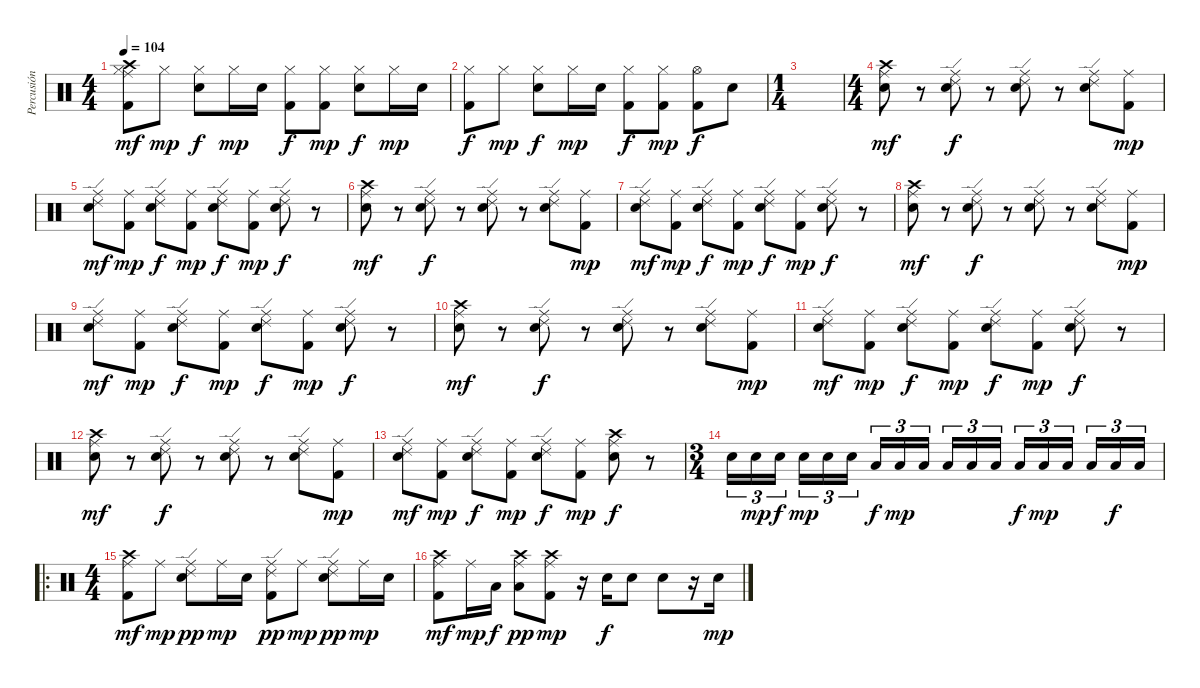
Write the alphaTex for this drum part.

\track ("Percusión" "Percusión") {instrument percussion}
\staff {score}
\articulation defaults
\ts (4 4)
\tempo 104
\clef neutral
\ks c
("Crash high (hit)" "Ride (middle)" "Hi-Hat (closed)" "Kick (hit) 2").8{dy mf} "Hi-Hat (closed)".8{dy mp} ("Hi-Hat (closed)" "Snare (hit) 2").8{dy f} "Hi-Hat (closed)".16{dy mp} "Snare (hit) 2".16 ("Hi-Hat (closed)" "Kick (hit) 2").8{dy f} ("Hi-Hat (closed)" "Kick (hit) 2").8{dy mp} ("Hi-Hat (closed)" "Snare (hit) 2").8{dy f} "Hi-Hat (closed)".16{dy mp} "Snare (hit) 2".16 |
("Hi-Hat (closed)" "Kick (hit) 2").8{dy f} "Hi-Hat (closed)".8{dy mp} ("Hi-Hat (closed)" "Snare (hit) 2").8{dy f} "Hi-Hat (closed)".16{dy mp} "Snare (hit) 2".16 ("Hi-Hat (closed)" "Kick (hit) 2").8{dy f} ("Hi-Hat (closed)" "Kick (hit) 2").8{dy mp} ("Hi-Hat (open)" "Kick (hit) 2").8{dy f} "Snare (hit) 2".8 |
\ts (1 4)
|
\ts (4 4)
("Crash high (hit)" "Ride (middle)" "Snare (hit) 2").8{dy mf} r.8 ("Ride (edge) 2" "Ride (middle)" "Snare (hit) 2").8{dy f} r.8 ("Ride (edge) 2" "Ride (middle)" "Snare (hit) 2").8 r.8 ("Ride (edge) 2" "Ride (middle)" "Snare (hit) 2").8 ("Ride (middle)" "Kick (hit) 2").8{dy mp} |
("Ride (edge) 2" "Ride (middle)" "Snare (hit) 2").8{dy mf} ("Ride (middle)" "Kick (hit) 2").8{dy mp} ("Ride (edge) 2" "Ride (middle)" "Snare (hit) 2").8{dy f} ("Ride (middle)" "Kick (hit) 2").8{dy mp} ("Ride (edge) 2" "Ride (middle)" "Snare (hit) 2").8{dy f} ("Ride (middle)" "Kick (hit) 2").8{dy mp} ("Ride (edge) 2" "Ride (middle)" "Snare (hit) 2").8{dy f} r.8 |
("Crash high (hit)" "Ride (middle)" "Snare (hit) 2").8{dy mf} r.8 ("Ride (edge) 2" "Ride (middle)" "Snare (hit) 2").8{dy f} r.8 ("Ride (edge) 2" "Ride (middle)" "Snare (hit) 2").8 r.8 ("Ride (edge) 2" "Ride (middle)" "Snare (hit) 2").8 ("Ride (middle)" "Kick (hit) 2").8{dy mp} |
("Ride (edge) 2" "Ride (middle)" "Snare (hit) 2").8{dy mf} ("Ride (middle)" "Kick (hit) 2").8{dy mp} ("Ride (edge) 2" "Ride (middle)" "Snare (hit) 2").8{dy f} ("Ride (middle)" "Kick (hit) 2").8{dy mp} ("Ride (edge) 2" "Ride (middle)" "Snare (hit) 2").8{dy f} ("Ride (middle)" "Kick (hit) 2").8{dy mp} ("Ride (edge) 2" "Ride (middle)" "Snare (hit) 2").8{dy f} r.8 |
("Crash high (hit)" "Ride (middle)" "Snare (hit) 2").8{dy mf} r.8 ("Ride (edge) 2" "Ride (middle)" "Snare (hit) 2").8{dy f} r.8 ("Ride (edge) 2" "Ride (middle)" "Snare (hit) 2").8 r.8 ("Ride (edge) 2" "Ride (middle)" "Snare (hit) 2").8 ("Ride (middle)" "Kick (hit) 2").8{dy mp} |
("Ride (edge) 2" "Ride (middle)" "Snare (hit) 2").8{dy mf} ("Ride (middle)" "Kick (hit) 2").8{dy mp} ("Ride (edge) 2" "Ride (middle)" "Snare (hit) 2").8{dy f} ("Ride (middle)" "Kick (hit) 2").8{dy mp} ("Ride (edge) 2" "Ride (middle)" "Snare (hit) 2").8{dy f} ("Ride (middle)" "Kick (hit) 2").8{dy mp} ("Ride (edge) 2" "Ride (middle)" "Snare (hit) 2").8{dy f} r.8 |
("Crash high (hit)" "Ride (middle)" "Snare (hit) 2").8{dy mf} r.8 ("Ride (edge) 2" "Ride (middle)" "Snare (hit) 2").8{dy f} r.8 ("Ride (edge) 2" "Ride (middle)" "Snare (hit) 2").8 r.8 ("Ride (edge) 2" "Ride (middle)" "Snare (hit) 2").8 ("Ride (middle)" "Kick (hit) 2").8{dy mp} |
("Ride (edge) 2" "Ride (middle)" "Snare (hit) 2").8{dy mf} ("Ride (middle)" "Kick (hit) 2").8{dy mp} ("Ride (edge) 2" "Ride (middle)" "Snare (hit) 2").8{dy f} ("Ride (middle)" "Kick (hit) 2").8{dy mp} ("Ride (edge) 2" "Ride (middle)" "Snare (hit) 2").8{dy f} ("Ride (middle)" "Kick (hit) 2").8{dy mp} ("Ride (edge) 2" "Ride (middle)" "Snare (hit) 2").8{dy f} r.8 |
("Crash high (hit)" "Ride (middle)" "Snare (hit) 2").8{dy mf} r.8 ("Ride (edge) 2" "Ride (middle)" "Snare (hit) 2").8{dy f} r.8 ("Ride (edge) 2" "Ride (middle)" "Snare (hit) 2").8 r.8 ("Ride (edge) 2" "Ride (middle)" "Snare (hit) 2").8 ("Ride (middle)" "Kick (hit) 2").8{dy mp} |
("Ride (edge) 2" "Ride (middle)" "Snare (hit) 2").8{dy mf} ("Ride (middle)" "Kick (hit) 2").8{dy mp} ("Ride (edge) 2" "Ride (middle)" "Snare (hit) 2").8{dy f} ("Ride (middle)" "Kick (hit) 2").8{dy mp} ("Ride (edge) 2" "Ride (middle)" "Snare (hit) 2").8{dy f} ("Ride (middle)" "Kick (hit) 2").8{dy mp} ("Crash high (hit)" "Ride (middle)" "Snare (hit) 2").8{dy f} r.8 |
\ts (3 4)
"Snare (hit) 2".16{tu (3 2)} "Snare (hit) 2".16{tu (3 2) dy mp} "Snare (hit) 2".16{tu (3 2) dy f} "Snare (hit) 2".16{tu (3 2) dy mp} "Snare (hit) 2".16{tu (3 2)} "Snare (hit) 2".16{tu (3 2)} "Low Tom (hit)".16{tu (3 2) dy f} "Low Tom (hit)".16{tu (3 2) dy mp} "Low Tom (hit)".16{tu (3 2)} "Low Tom (hit)".16{tu (3 2)} "Low Tom (hit)".16{tu (3 2)} "Low Tom (hit)".16{tu (3 2)} "Low Floor Tom (hit)".16{tu (3 2) dy f} "Low Floor Tom (hit)".16{tu (3 2) dy mp} "Low Floor Tom (hit)".16{tu (3 2)} "Low Floor Tom (hit)".16{tu (3 2)} "Low Floor Tom (hit)".16{tu (3 2) dy f} "Low Floor Tom (hit)".16{tu (3 2)} |
\ro
\ts (4 4)
("Crash high (hit)" "Ride (middle)" "Kick (hit) 2").8{dy mf} "Ride (middle)".8{dy mp} ("Ride (edge) 2" "Ride (middle)" "Snare (hit) 2").8{dy pp} "Ride (middle)".16{dy mp} "Snare (hit) 2".16 ("Ride (edge) 2" "Ride (middle)" "Kick (hit) 2").8{dy pp} "Ride (middle)".8{dy mp} ("Ride (edge) 2" "Ride (middle)" "Snare (hit) 2").8{dy pp} "Ride (middle)".16{dy mp} "Snare (hit) 2".16 |
("Crash high (hit)" "Ride (middle)" "Kick (hit) 2").8{dy mf} "Ride (middle)".16{dy mp} "Low Floor Tom (hit)".16{dy f} ("Crash high (hit)" "Ride (middle)" "Low Floor Tom (hit)").8{dy pp} ("Crash high (hit)" "Ride (middle)" "Kick (hit) 2").8{dy mp} r.16 "Snare (hit) 2".16{dy f} "Snare (hit) 2".8 "Snare (hit) 2".8 r.16 "Snare (hit) 2".16{dy mp}
